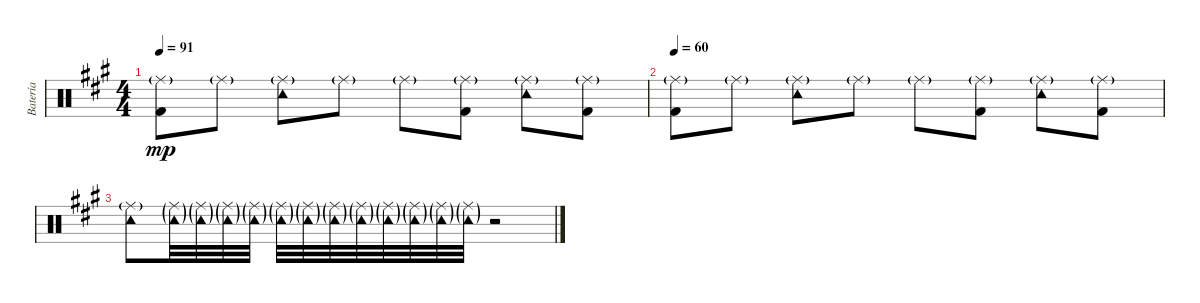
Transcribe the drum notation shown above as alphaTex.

\track ("Batería" "Batería") {instrument percussion}
\staff {score}
\articulation defaults
\ts (4 4)
\tempo 91
\clef neutral
\ks a
("Kick (hit) 2" "Ride (middle)"{g}).8{dy mp} "Ride (middle)"{g}.8 ("Ride (middle)"{g} "Tambourine (hit)").8 "Ride (middle)"{g}.8 "Ride (middle)"{g}.8 ("Kick (hit) 2" "Ride (middle)"{g}).8 ("Ride (middle)"{g} "Tambourine (hit)").8 ("Kick (hit) 2" "Ride (middle)"{g}).8 |
\tempo 60
("Kick (hit) 2" "Ride (middle)"{g}).8 "Ride (middle)"{g}.8 ("Ride (middle)"{g} "Tambourine (hit)").8 "Ride (middle)"{g}.8 "Ride (middle)"{g}.8 ("Kick (hit) 2" "Ride (middle)"{g}).8 ("Ride (middle)"{g} "Tambourine (hit)").8 ("Kick (hit) 2" "Ride (middle)"{g}).8 |
("Ride (middle)"{g} "Tambourine (hit)").8{volume 0} ("Ride (middle)"{g} "Tambourine (hit)"{g}).32 ("Ride (middle)"{g} "Tambourine (hit)"{g}).32 ("Ride (middle)"{g} "Tambourine (hit)"{g}).32 ("Ride (middle)"{g} "Tambourine (hit)"{g}).32 ("Ride (middle)"{g} "Tambourine (hit)"{g}).32 ("Ride (middle)"{g} "Tambourine (hit)"{g}).32 ("Ride (middle)"{g} "Tambourine (hit)"{g}).32 ("Ride (middle)"{g} "Tambourine (hit)"{g}).32 ("Ride (middle)"{g} "Tambourine (hit)"{g}).32 ("Ride (middle)"{g} "Tambourine (hit)"{g}).32 ("Ride (middle)"{g} "Tambourine (hit)"{g}).32 ("Ride (middle)"{g} "Tambourine (hit)"{g}).32 r.2
